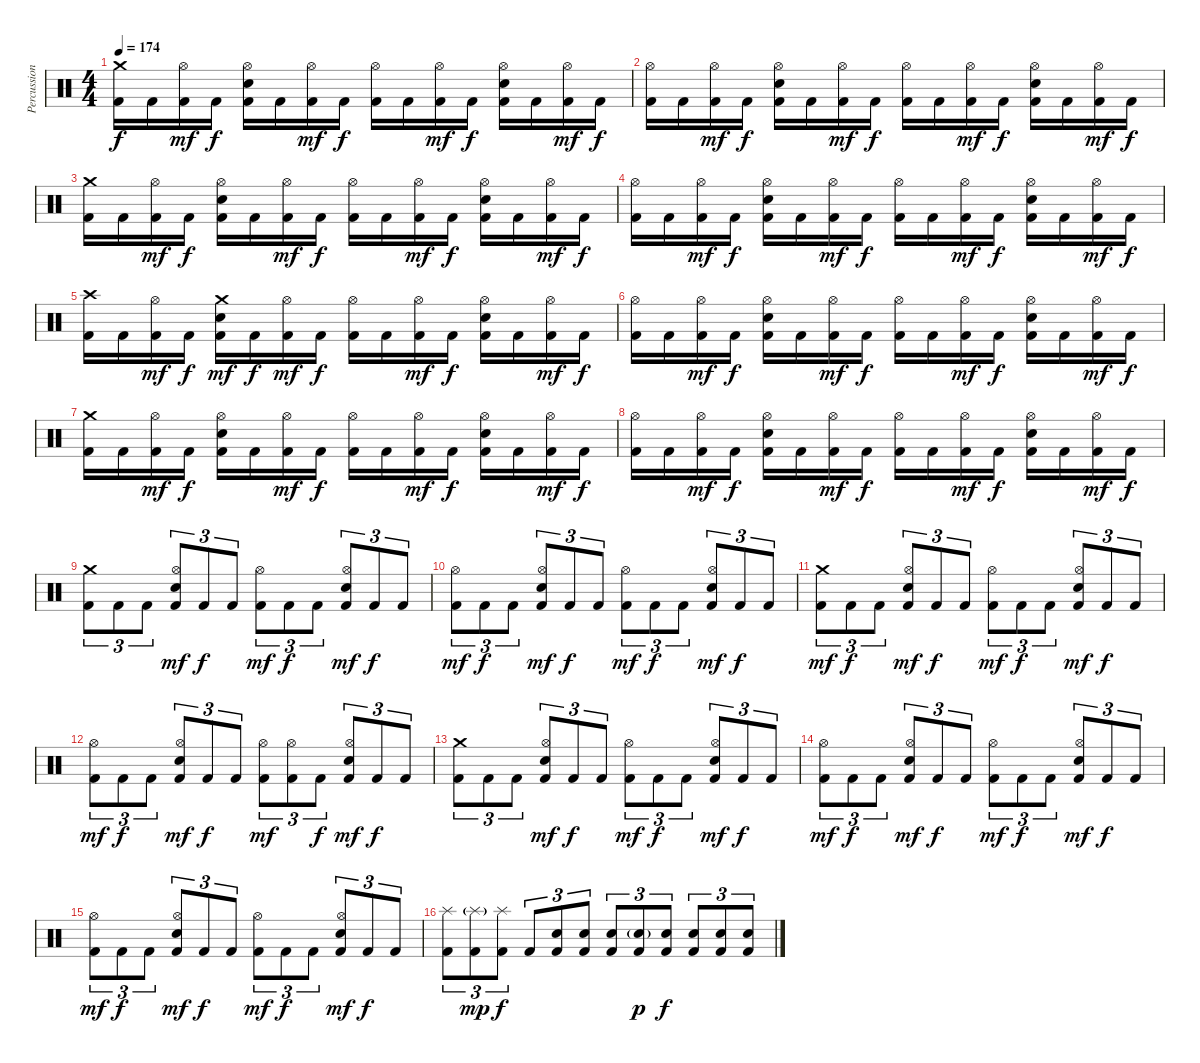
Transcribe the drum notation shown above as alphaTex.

\track ("Percussion" "Percussion") {instrument percussion}
\staff {score}
\articulation defaults
\ts (4 4)
\tempo 174
\clef neutral
\ks c
("Crash medium (hit)" "Kick (hit) 2").16{dy f} "Kick (hit) 2".16 ("Hi-Hat (open)" "Kick (hit) 2").16{dy mf} "Kick (hit) 2".16{dy f} ("Hi-Hat (open)" "Electric Snare (hit)" "Kick (hit) 2").16 "Kick (hit) 2".16 ("Hi-Hat (open)" "Kick (hit) 2").16{dy mf} "Kick (hit) 2".16{dy f} ("Hi-Hat (open)" "Kick (hit) 2").16 "Kick (hit) 2".16 ("Hi-Hat (open)" "Kick (hit) 2").16{dy mf} "Kick (hit) 2".16{dy f} ("Hi-Hat (open)" "Electric Snare (hit)" "Kick (hit) 2").16 "Kick (hit) 2".16 ("Hi-Hat (open)" "Kick (hit) 2").16{dy mf} "Kick (hit) 2".16{dy f} |
("Hi-Hat (open)" "Kick (hit) 2").16 "Kick (hit) 2".16 ("Hi-Hat (open)" "Kick (hit) 2").16{dy mf} "Kick (hit) 2".16{dy f} ("Hi-Hat (open)" "Electric Snare (hit)" "Kick (hit) 2").16 "Kick (hit) 2".16 ("Hi-Hat (open)" "Kick (hit) 2").16{dy mf} "Kick (hit) 2".16{dy f} ("Hi-Hat (open)" "Kick (hit) 2").16 "Kick (hit) 2".16 ("Hi-Hat (open)" "Kick (hit) 2").16{dy mf} "Kick (hit) 2".16{dy f} ("Hi-Hat (open)" "Electric Snare (hit)" "Kick (hit) 2").16 "Kick (hit) 2".16 ("Hi-Hat (open)" "Kick (hit) 2").16{dy mf} "Kick (hit) 2".16{dy f} |
("Crash medium (hit)" "Kick (hit) 2").16 "Kick (hit) 2".16 ("Hi-Hat (open)" "Kick (hit) 2").16{dy mf} "Kick (hit) 2".16{dy f} ("Hi-Hat (open)" "Electric Snare (hit)" "Kick (hit) 2").16 "Kick (hit) 2".16 ("Hi-Hat (open)" "Kick (hit) 2").16{dy mf} "Kick (hit) 2".16{dy f} ("Hi-Hat (open)" "Kick (hit) 2").16 "Kick (hit) 2".16 ("Hi-Hat (open)" "Kick (hit) 2").16{dy mf} "Kick (hit) 2".16{dy f} ("Hi-Hat (open)" "Electric Snare (hit)" "Kick (hit) 2").16 "Kick (hit) 2".16 ("Hi-Hat (open)" "Kick (hit) 2").16{dy mf} "Kick (hit) 2".16{dy f} |
("Hi-Hat (open)" "Kick (hit) 2").16 "Kick (hit) 2".16 ("Hi-Hat (open)" "Kick (hit) 2").16{dy mf} "Kick (hit) 2".16{dy f} ("Hi-Hat (open)" "Electric Snare (hit)" "Kick (hit) 2").16 "Kick (hit) 2".16 ("Hi-Hat (open)" "Kick (hit) 2").16{dy mf} "Kick (hit) 2".16{dy f} ("Hi-Hat (open)" "Kick (hit) 2").16 "Kick (hit) 2".16 ("Hi-Hat (open)" "Kick (hit) 2").16{dy mf} "Kick (hit) 2".16{dy f} ("Hi-Hat (open)" "Electric Snare (hit)" "Kick (hit) 2").16 "Kick (hit) 2".16 ("Hi-Hat (open)" "Kick (hit) 2").16{dy mf} "Kick (hit) 2".16{dy f} |
("Crash high (hit)" "Kick (hit) 2").16 "Kick (hit) 2".16 ("Hi-Hat (open)" "Kick (hit) 2").16{dy mf} "Kick (hit) 2".16{dy f} ("Crash medium (hit)" "Electric Snare (hit)" "Kick (hit) 2").16{dy mf} "Kick (hit) 2".16{dy f} ("Hi-Hat (open)" "Kick (hit) 2").16{dy mf} "Kick (hit) 2".16{dy f} ("Hi-Hat (open)" "Kick (hit) 2").16 "Kick (hit) 2".16 ("Hi-Hat (open)" "Kick (hit) 2").16{dy mf} "Kick (hit) 2".16{dy f} ("Hi-Hat (open)" "Electric Snare (hit)" "Kick (hit) 2").16 "Kick (hit) 2".16 ("Hi-Hat (open)" "Kick (hit) 2").16{dy mf} "Kick (hit) 2".16{dy f} |
("Hi-Hat (open)" "Kick (hit) 2").16 "Kick (hit) 2".16 ("Hi-Hat (open)" "Kick (hit) 2").16{dy mf} "Kick (hit) 2".16{dy f} ("Hi-Hat (open)" "Electric Snare (hit)" "Kick (hit) 2").16 "Kick (hit) 2".16 ("Hi-Hat (open)" "Kick (hit) 2").16{dy mf} "Kick (hit) 2".16{dy f} ("Hi-Hat (open)" "Kick (hit) 2").16 "Kick (hit) 2".16 ("Hi-Hat (open)" "Kick (hit) 2").16{dy mf} "Kick (hit) 2".16{dy f} ("Hi-Hat (open)" "Electric Snare (hit)" "Kick (hit) 2").16 "Kick (hit) 2".16 ("Hi-Hat (open)" "Kick (hit) 2").16{dy mf} "Kick (hit) 2".16{dy f} |
("Crash medium (hit)" "Kick (hit) 2").16 "Kick (hit) 2".16 ("Hi-Hat (open)" "Kick (hit) 2").16{dy mf} "Kick (hit) 2".16{dy f} ("Hi-Hat (open)" "Electric Snare (hit)" "Kick (hit) 2").16 "Kick (hit) 2".16 ("Hi-Hat (open)" "Kick (hit) 2").16{dy mf} "Kick (hit) 2".16{dy f} ("Hi-Hat (open)" "Kick (hit) 2").16 "Kick (hit) 2".16 ("Hi-Hat (open)" "Kick (hit) 2").16{dy mf} "Kick (hit) 2".16{dy f} ("Hi-Hat (open)" "Electric Snare (hit)" "Kick (hit) 2").16 "Kick (hit) 2".16 ("Hi-Hat (open)" "Kick (hit) 2").16{dy mf} "Kick (hit) 2".16{dy f} |
("Hi-Hat (open)" "Kick (hit) 2").16 "Kick (hit) 2".16 ("Hi-Hat (open)" "Kick (hit) 2").16{dy mf} "Kick (hit) 2".16{dy f} ("Hi-Hat (open)" "Electric Snare (hit)" "Kick (hit) 2").16 "Kick (hit) 2".16 ("Hi-Hat (open)" "Kick (hit) 2").16{dy mf} "Kick (hit) 2".16{dy f} ("Hi-Hat (open)" "Kick (hit) 2").16 "Kick (hit) 2".16 ("Hi-Hat (open)" "Kick (hit) 2").16{dy mf} "Kick (hit) 2".16{dy f} ("Hi-Hat (open)" "Electric Snare (hit)" "Kick (hit) 2").16 "Kick (hit) 2".16 ("Hi-Hat (open)" "Kick (hit) 2").16{dy mf} "Kick (hit) 2".16{dy f} |
("Crash medium (hit)" "Kick (hit) 2").8{tu (3 2)} "Kick (hit) 2".8{tu (3 2)} "Kick (hit) 2".8{tu (3 2)} ("Hi-Hat (open)" "Electric Snare (hit)" "Kick (hit) 2").8{tu (3 2) dy mf} "Kick (hit) 2".8{tu (3 2) dy f} "Kick (hit) 2".8{tu (3 2)} ("Hi-Hat (open)" "Kick (hit) 2").8{tu (3 2) dy mf} "Kick (hit) 2".8{tu (3 2) dy f} "Kick (hit) 2".8{tu (3 2)} ("Hi-Hat (open)" "Electric Snare (hit)" "Kick (hit) 2").8{tu (3 2) dy mf} "Kick (hit) 2".8{tu (3 2) dy f} "Kick (hit) 2".8{tu (3 2)} |
("Hi-Hat (open)" "Kick (hit) 2").8{tu (3 2) dy mf} "Kick (hit) 2".8{tu (3 2) dy f} "Kick (hit) 2".8{tu (3 2)} ("Hi-Hat (open)" "Electric Snare (hit)" "Kick (hit) 2").8{tu (3 2) dy mf} "Kick (hit) 2".8{tu (3 2) dy f} "Kick (hit) 2".8{tu (3 2)} ("Hi-Hat (open)" "Kick (hit) 2").8{tu (3 2) dy mf} "Kick (hit) 2".8{tu (3 2) dy f} "Kick (hit) 2".8{tu (3 2)} ("Hi-Hat (open)" "Electric Snare (hit)" "Kick (hit) 2").8{tu (3 2) dy mf} "Kick (hit) 2".8{tu (3 2) dy f} "Kick (hit) 2".8{tu (3 2)} |
("Crash medium (hit)" "Kick (hit) 2").8{tu (3 2) dy mf} "Kick (hit) 2".8{tu (3 2) dy f} "Kick (hit) 2".8{tu (3 2)} ("Hi-Hat (open)" "Electric Snare (hit)" "Kick (hit) 2").8{tu (3 2) dy mf} "Kick (hit) 2".8{tu (3 2) dy f} "Kick (hit) 2".8{tu (3 2)} ("Hi-Hat (open)" "Kick (hit) 2").8{tu (3 2) dy mf} "Kick (hit) 2".8{tu (3 2) dy f} "Kick (hit) 2".8{tu (3 2)} ("Hi-Hat (open)" "Electric Snare (hit)" "Kick (hit) 2").8{tu (3 2) dy mf} "Kick (hit) 2".8{tu (3 2) dy f} "Kick (hit) 2".8{tu (3 2)} |
("Hi-Hat (open)" "Kick (hit) 2").8{tu (3 2) dy mf} "Kick (hit) 2".8{tu (3 2) dy f} "Kick (hit) 2".8{tu (3 2)} ("Hi-Hat (open)" "Electric Snare (hit)" "Kick (hit) 2").8{tu (3 2) dy mf} "Kick (hit) 2".8{tu (3 2) dy f} "Kick (hit) 2".8{tu (3 2)} ("Hi-Hat (open)" "Kick (hit) 2").8{tu (3 2) dy mf} ("Hi-Hat (open)" "Kick (hit) 2").8{tu (3 2)} "Kick (hit) 2".8{tu (3 2) dy f} ("Hi-Hat (open)" "Electric Snare (hit)" "Kick (hit) 2").8{tu (3 2) dy mf} "Kick (hit) 2".8{tu (3 2) dy f} "Kick (hit) 2".8{tu (3 2)} |
("Crash medium (hit)" "Kick (hit) 2").8{tu (3 2)} "Kick (hit) 2".8{tu (3 2)} "Kick (hit) 2".8{tu (3 2)} ("Hi-Hat (open)" "Electric Snare (hit)" "Kick (hit) 2").8{tu (3 2) dy mf} "Kick (hit) 2".8{tu (3 2) dy f} "Kick (hit) 2".8{tu (3 2)} ("Hi-Hat (open)" "Kick (hit) 2").8{tu (3 2) dy mf} "Kick (hit) 2".8{tu (3 2) dy f} "Kick (hit) 2".8{tu (3 2)} ("Hi-Hat (open)" "Electric Snare (hit)" "Kick (hit) 2").8{tu (3 2) dy mf} "Kick (hit) 2".8{tu (3 2) dy f} "Kick (hit) 2".8{tu (3 2)} |
("Hi-Hat (open)" "Kick (hit) 2").8{tu (3 2) dy mf} "Kick (hit) 2".8{tu (3 2) dy f} "Kick (hit) 2".8{tu (3 2)} ("Hi-Hat (open)" "Electric Snare (hit)" "Kick (hit) 2").8{tu (3 2) dy mf} "Kick (hit) 2".8{tu (3 2) dy f} "Kick (hit) 2".8{tu (3 2)} ("Hi-Hat (open)" "Kick (hit) 2").8{tu (3 2) dy mf} "Kick (hit) 2".8{tu (3 2) dy f} "Kick (hit) 2".8{tu (3 2)} ("Hi-Hat (open)" "Electric Snare (hit)" "Kick (hit) 2").8{tu (3 2) dy mf} "Kick (hit) 2".8{tu (3 2) dy f} "Kick (hit) 2".8{tu (3 2)} |
("Hi-Hat (open)" "Kick (hit) 2").8{tu (3 2) dy mf} "Kick (hit) 2".8{tu (3 2) dy f} "Kick (hit) 2".8{tu (3 2)} ("Hi-Hat (open)" "Electric Snare (hit)" "Kick (hit) 2").8{tu (3 2) dy mf} "Kick (hit) 2".8{tu (3 2) dy f} "Kick (hit) 2".8{tu (3 2)} ("Hi-Hat (open)" "Kick (hit) 2").8{tu (3 2) dy mf} "Kick (hit) 2".8{tu (3 2) dy f} "Kick (hit) 2".8{tu (3 2)} ("Hi-Hat (open)" "Electric Snare (hit)" "Kick (hit) 2").8{tu (3 2) dy mf} "Kick (hit) 2".8{tu (3 2) dy f} "Kick (hit) 2".8{tu (3 2)} |
("Splash (hit)" "Kick (hit) 2").8{tu (3 2)} ("Splash (hit)"{g} "Kick (hit) 2").8{tu (3 2) dy mp} ("Splash (hit)" "Kick (hit) 2").8{tu (3 2) dy f} "Kick (hit) 2".8{tu (3 2)} ("Electric Snare (hit)" "Kick (hit) 2").8{tu (3 2)} ("Electric Snare (hit)" "Kick (hit) 2").8{tu (3 2)} ("Electric Snare (hit)" "Kick (hit) 2").8{tu (3 2)} ("Electric Snare (hit)"{g} "Kick (hit) 2").8{tu (3 2) dy p} ("Electric Snare (hit)" "Kick (hit) 2").8{tu (3 2) dy f} ("Electric Snare (hit)" "Kick (hit) 2").8{tu (3 2)} ("Electric Snare (hit)" "Kick (hit) 2").8{tu (3 2)} ("Electric Snare (hit)" "Kick (hit) 2").8{tu (3 2)}
